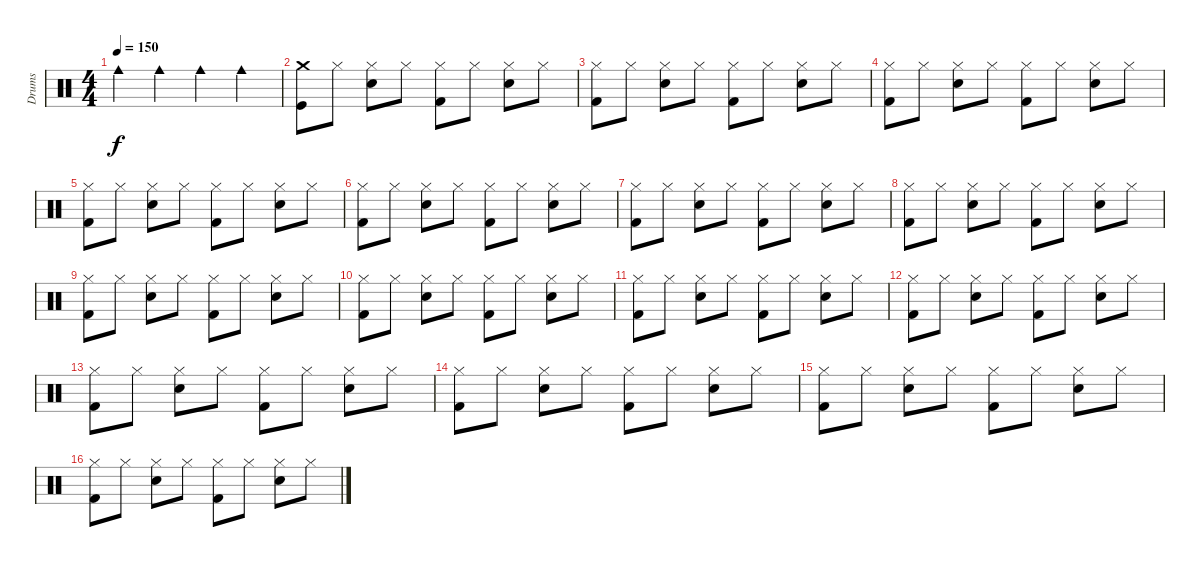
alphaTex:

\track ("Drums" "Drums") {instrument percussion}
\staff {score}
\articulation defaults
\ts (4 4)
\tempo 150
\clef neutral
\ks c "Cowbell medium (hit)".4{dy f} "Cowbell medium (hit)".4 "Cowbell medium (hit)".4 "Cowbell medium (hit)".4
|
("Crash medium (hit)" "Kick (hit)").8 "Hi-Hat (closed)".8 ("Hi-Hat (closed)" "Electric Snare (hit)").8 "Hi-Hat (closed)".8 ("Hi-Hat (closed)" "Kick (hit) 2").8 "Hi-Hat (closed)".8 ("Hi-Hat (closed)" "Electric Snare (hit)").8 "Hi-Hat (closed)".8 |
("Hi-Hat (closed)" "Kick (hit) 2").8 "Hi-Hat (closed)".8 ("Hi-Hat (closed)" "Electric Snare (hit)").8 "Hi-Hat (closed)".8 ("Hi-Hat (closed)" "Kick (hit) 2").8 "Hi-Hat (closed)".8 ("Hi-Hat (closed)" "Electric Snare (hit)").8 "Hi-Hat (closed)".8 |
("Hi-Hat (closed)" "Kick (hit) 2").8 "Hi-Hat (closed)".8 ("Hi-Hat (closed)" "Electric Snare (hit)").8 "Hi-Hat (closed)".8 ("Hi-Hat (closed)" "Kick (hit) 2").8 "Hi-Hat (closed)".8 ("Hi-Hat (closed)" "Electric Snare (hit)").8 "Hi-Hat (closed)".8 |
("Hi-Hat (closed)" "Kick (hit) 2").8 "Hi-Hat (closed)".8 ("Hi-Hat (closed)" "Electric Snare (hit)").8 "Hi-Hat (closed)".8 ("Hi-Hat (closed)" "Kick (hit) 2").8 "Hi-Hat (closed)".8 ("Hi-Hat (closed)" "Electric Snare (hit)").8 "Hi-Hat (closed)".8 |
("Hi-Hat (closed)" "Kick (hit) 2").8 "Hi-Hat (closed)".8 ("Hi-Hat (closed)" "Electric Snare (hit)").8 "Hi-Hat (closed)".8 ("Hi-Hat (closed)" "Kick (hit) 2").8 "Hi-Hat (closed)".8 ("Hi-Hat (closed)" "Electric Snare (hit)").8 "Hi-Hat (closed)".8 |
("Hi-Hat (closed)" "Kick (hit) 2").8 "Hi-Hat (closed)".8 ("Hi-Hat (closed)" "Electric Snare (hit)").8 "Hi-Hat (closed)".8 ("Hi-Hat (closed)" "Kick (hit) 2").8 "Hi-Hat (closed)".8 ("Hi-Hat (closed)" "Electric Snare (hit)").8 "Hi-Hat (closed)".8 |
("Hi-Hat (closed)" "Kick (hit) 2").8 "Hi-Hat (closed)".8 ("Hi-Hat (closed)" "Electric Snare (hit)").8 "Hi-Hat (closed)".8 ("Hi-Hat (closed)" "Kick (hit) 2").8 "Hi-Hat (closed)".8 ("Hi-Hat (closed)" "Electric Snare (hit)").8 "Hi-Hat (closed)".8 |
("Hi-Hat (closed)" "Kick (hit) 2").8 "Hi-Hat (closed)".8 ("Hi-Hat (closed)" "Electric Snare (hit)").8 "Hi-Hat (closed)".8 ("Hi-Hat (closed)" "Kick (hit) 2").8 "Hi-Hat (closed)".8 ("Hi-Hat (closed)" "Electric Snare (hit)").8 "Hi-Hat (closed)".8 |
("Hi-Hat (closed)" "Kick (hit) 2").8 "Hi-Hat (closed)".8 ("Hi-Hat (closed)" "Electric Snare (hit)").8 "Hi-Hat (closed)".8 ("Hi-Hat (closed)" "Kick (hit) 2").8 "Hi-Hat (closed)".8 ("Hi-Hat (closed)" "Electric Snare (hit)").8 "Hi-Hat (closed)".8 |
("Hi-Hat (closed)" "Kick (hit) 2").8 "Hi-Hat (closed)".8 ("Hi-Hat (closed)" "Electric Snare (hit)").8 "Hi-Hat (closed)".8 ("Hi-Hat (closed)" "Kick (hit) 2").8 "Hi-Hat (closed)".8 ("Hi-Hat (closed)" "Electric Snare (hit)").8 "Hi-Hat (closed)".8 |
("Hi-Hat (closed)" "Kick (hit) 2").8 "Hi-Hat (closed)".8 ("Hi-Hat (closed)" "Electric Snare (hit)").8 "Hi-Hat (closed)".8 ("Hi-Hat (closed)" "Kick (hit) 2").8 "Hi-Hat (closed)".8 ("Hi-Hat (closed)" "Electric Snare (hit)").8 "Hi-Hat (closed)".8 |
("Hi-Hat (closed)" "Kick (hit) 2").8 "Hi-Hat (closed)".8 ("Hi-Hat (closed)" "Electric Snare (hit)").8 "Hi-Hat (closed)".8 ("Hi-Hat (closed)" "Kick (hit) 2").8 "Hi-Hat (closed)".8 ("Hi-Hat (closed)" "Electric Snare (hit)").8 "Hi-Hat (closed)".8 |
("Hi-Hat (closed)" "Kick (hit) 2").8 "Hi-Hat (closed)".8 ("Hi-Hat (closed)" "Electric Snare (hit)").8 "Hi-Hat (closed)".8 ("Hi-Hat (closed)" "Kick (hit) 2").8 "Hi-Hat (closed)".8 ("Hi-Hat (closed)" "Electric Snare (hit)").8 "Hi-Hat (closed)".8 |
("Hi-Hat (closed)" "Kick (hit) 2").8 "Hi-Hat (closed)".8 ("Hi-Hat (closed)" "Electric Snare (hit)").8 "Hi-Hat (closed)".8 ("Hi-Hat (closed)" "Kick (hit) 2").8 "Hi-Hat (closed)".8 ("Hi-Hat (closed)" "Electric Snare (hit)").8 "Hi-Hat (closed)".8 |
("Hi-Hat (closed)" "Kick (hit) 2").8 "Hi-Hat (closed)".8 ("Hi-Hat (closed)" "Electric Snare (hit)").8 "Hi-Hat (closed)".8 ("Hi-Hat (closed)" "Kick (hit) 2").8 "Hi-Hat (closed)".8 ("Hi-Hat (closed)" "Electric Snare (hit)").8 "Hi-Hat (closed)".8
